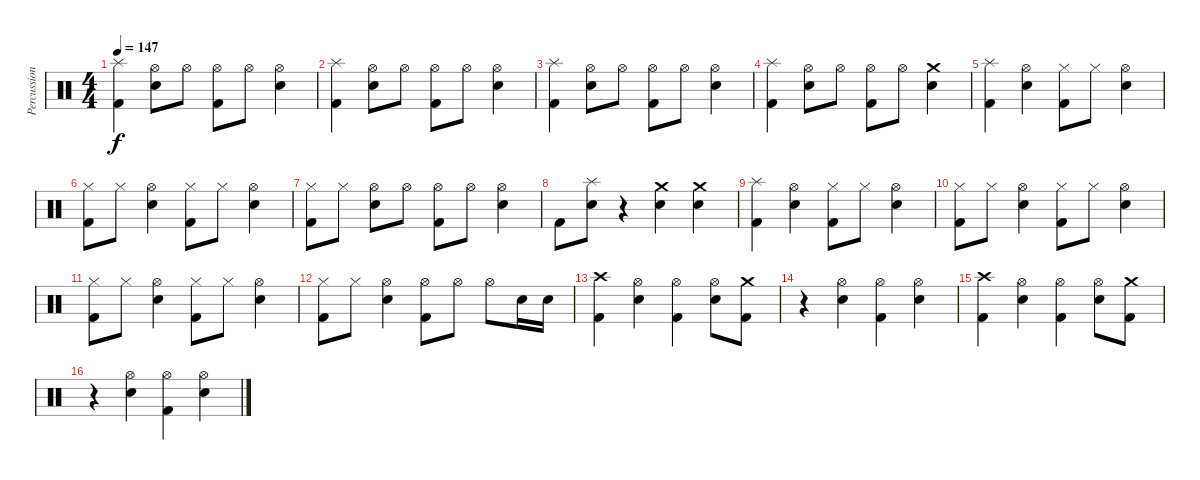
\track ("Percussion" "Percussion") {instrument percussion}
\staff {score}
\articulation defaults
\ts (4 4)
\tempo 147
\clef neutral
\ks c
("Splash (hit)" "Kick (hit) 2").4{dy f} ("Hi-Hat (open)" "Snare (hit) 2").8 "Hi-Hat (open)".8 ("Hi-Hat (open)" "Kick (hit) 2").8 "Hi-Hat (open)".8 ("Hi-Hat (open)" "Snare (hit) 2").4 |
("Splash (hit)" "Kick (hit) 2").4 ("Hi-Hat (open)" "Snare (hit) 2").8 "Hi-Hat (open)".8 ("Hi-Hat (open)" "Kick (hit) 2").8 "Hi-Hat (open)".8 ("Hi-Hat (open)" "Snare (hit) 2").4 |
("Splash (hit)" "Kick (hit) 2").4 ("Hi-Hat (open)" "Snare (hit) 2").8 "Hi-Hat (open)".8 ("Hi-Hat (open)" "Kick (hit) 2").8 "Hi-Hat (open)".8 ("Hi-Hat (open)" "Snare (hit) 2").4 |
("Splash (hit)" "Kick (hit) 2").4 ("Hi-Hat (open)" "Snare (hit) 2").8 "Hi-Hat (open)".8 ("Hi-Hat (open)" "Kick (hit) 2").8 "Hi-Hat (open)".8 ("Crash medium (hit)" "Snare (hit) 2").4 |
("Splash (hit)" "Kick (hit) 2").4 ("Hi-Hat (open)" "Snare (hit) 2").4 ("Hi-Hat (closed)" "Kick (hit) 2").8 "Hi-Hat (closed)".8 ("Hi-Hat (open)" "Snare (hit) 2").4 |
("Hi-Hat (closed)" "Kick (hit) 2").8 "Hi-Hat (closed)".8 ("Hi-Hat (open)" "Snare (hit) 2").4 ("Hi-Hat (closed)" "Kick (hit) 2").8 "Hi-Hat (closed)".8 ("Hi-Hat (open)" "Snare (hit) 2").4 |
("Hi-Hat (closed)" "Kick (hit) 2").8 "Hi-Hat (closed)".8 ("Hi-Hat (open)" "Snare (hit) 2").8 "Hi-Hat (open)".8 ("Hi-Hat (open)" "Kick (hit) 2").8 "Hi-Hat (open)".8 ("Hi-Hat (open)" "Snare (hit) 2").4 |
"Kick (hit) 2".8 ("Splash (hit)" "Snare (hit) 2").8 r.4 ("Crash medium (hit)" "Snare (hit) 2").4 ("Crash medium (hit)" "Snare (hit) 2").4 |
("Splash (hit)" "Kick (hit) 2").4 ("Hi-Hat (open)" "Snare (hit) 2").4 ("Hi-Hat (closed)" "Kick (hit) 2").8 "Hi-Hat (closed)".8 ("Hi-Hat (open)" "Snare (hit) 2").4 |
("Hi-Hat (closed)" "Kick (hit) 2").8 "Hi-Hat (closed)".8 ("Hi-Hat (open)" "Snare (hit) 2").4 ("Hi-Hat (closed)" "Kick (hit) 2").8 "Hi-Hat (closed)".8 ("Hi-Hat (open)" "Snare (hit) 2").4 |
("Hi-Hat (closed)" "Kick (hit) 2").8 "Hi-Hat (closed)".8 ("Hi-Hat (open)" "Snare (hit) 2").4 ("Hi-Hat (closed)" "Kick (hit) 2").8 "Hi-Hat (closed)".8 ("Hi-Hat (open)" "Snare (hit) 2").4 |
("Hi-Hat (closed)" "Kick (hit) 2").8 "Hi-Hat (closed)".8 ("Hi-Hat (open)" "Snare (hit) 2").4 ("Hi-Hat (open)" "Kick (hit) 2").8 "Hi-Hat (open)".8 "Hi-Hat (open)".8 "Snare (hit) 2".16 "Snare (hit) 2".16 |
("Crash high (hit)" "Kick (hit) 2").4 ("Hi-Hat (open)" "Snare (hit) 2").4 ("Hi-Hat (open)" "Kick (hit) 2").4 ("Hi-Hat (open)" "Snare (hit) 2").8 ("Crash medium (hit)" "Kick (hit) 2").8 |
r.4 ("Hi-Hat (open)" "Snare (hit) 2").4 ("Hi-Hat (open)" "Kick (hit) 2").4 ("Hi-Hat (open)" "Snare (hit) 2").4 |
("Crash high (hit)" "Kick (hit) 2").4 ("Hi-Hat (open)" "Snare (hit) 2").4 ("Hi-Hat (open)" "Kick (hit) 2").4 ("Hi-Hat (open)" "Snare (hit) 2").8 ("Crash medium (hit)" "Kick (hit) 2").8 |
r.4 ("Hi-Hat (open)" "Snare (hit) 2").4 ("Hi-Hat (open)" "Kick (hit) 2").4 ("Hi-Hat (open)" "Snare (hit) 2").4
